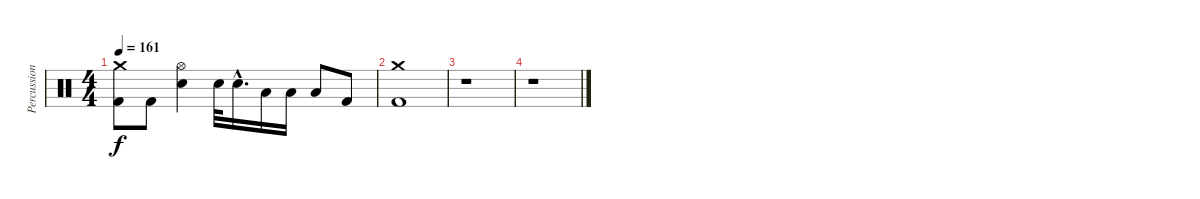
\track ("Percussions" "Percussion") {instrument percussion}
\staff {score}
\articulation defaults
\ts (4 4)
\tempo 161
\clef neutral
\ks c
("Kick (hit) 2" "Crash medium (hit)").8{dy f} "Kick (hit) 2".8 ("Electric Snare (hit)" "Hi-Hat (open)").4 "Electric Snare (hit)".32 "Electric Snare (hit)"{hac}.16{d} "Low Floor Tom (hit)".16 "Low Floor Tom (hit)".16 "Low Floor Tom (hit)".8 "Kick (hit) 2".8 |
("Kick (hit) 2" "Crash medium (hit)").1 |
r.1 |
r.1
